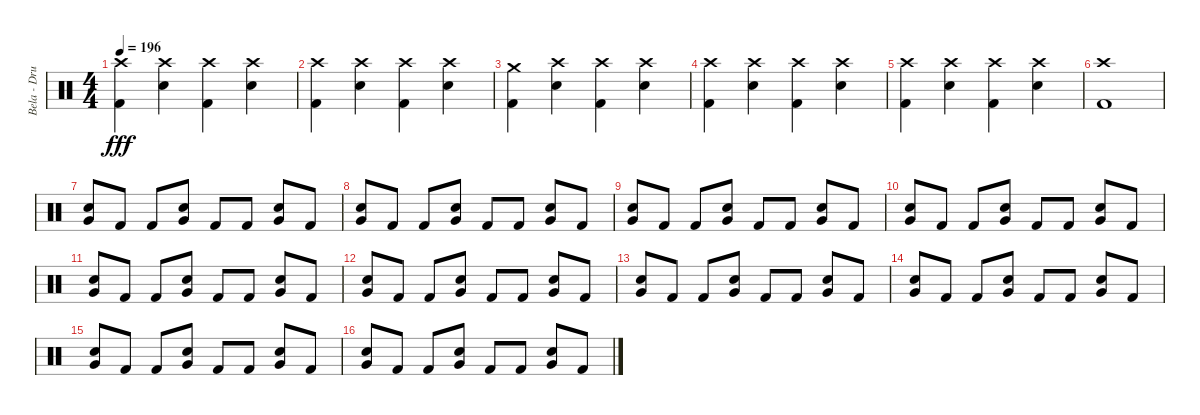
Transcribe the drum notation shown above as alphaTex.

\track ("Bela - Drums" "Bela - Dru") {instrument percussion}
\staff {score}
\articulation defaults
\ts (4 4)
\tempo 196
\clef neutral
\ks c
("Crash high (hit)" "Kick (hit) 2").4{dy fff} ("Crash high (hit)" "Electric Snare (hit)").4 ("Crash high (hit)" "Kick (hit) 2").4 ("Crash high (hit)" "Electric Snare (hit)").4 |
("Crash high (hit)" "Kick (hit) 2").4 ("Crash high (hit)" "Electric Snare (hit)").4 ("Crash high (hit)" "Kick (hit) 2").4 ("Crash high (hit)" "Electric Snare (hit)").4 |
("Crash medium (hit)" "Kick (hit) 2").4 ("Crash high (hit)" "Electric Snare (hit)").4 ("Crash high (hit)" "Kick (hit) 2").4 ("Crash high (hit)" "Electric Snare (hit)").4 |
("Crash high (hit)" "Kick (hit) 2").4 ("Crash high (hit)" "Electric Snare (hit)").4 ("Crash high (hit)" "Kick (hit) 2").4 ("Crash high (hit)" "Electric Snare (hit)").4 |
("Crash high (hit)" "Kick (hit) 2").4 ("Crash high (hit)" "Electric Snare (hit)").4 ("Crash high (hit)" "Kick (hit) 2").4 ("Crash high (hit)" "Electric Snare (hit)").4 |
("Crash high (hit)" "Kick (hit) 2").1 |
("Electric Snare (hit)" "Very Low Tom (hit)").8 "Kick (hit) 2".8 "Kick (hit) 2".8 ("Electric Snare (hit)" "Very Low Tom (hit)").8 "Kick (hit) 2".8 "Kick (hit) 2".8 ("Electric Snare (hit)" "Very Low Tom (hit)").8 "Kick (hit) 2".8 |
("Electric Snare (hit)" "Very Low Tom (hit)").8 "Kick (hit) 2".8 "Kick (hit) 2".8 ("Electric Snare (hit)" "Very Low Tom (hit)").8 "Kick (hit) 2".8 "Kick (hit) 2".8 ("Electric Snare (hit)" "Very Low Tom (hit)").8 "Kick (hit) 2".8 |
("Electric Snare (hit)" "Very Low Tom (hit)").8 "Kick (hit) 2".8 "Kick (hit) 2".8 ("Electric Snare (hit)" "Very Low Tom (hit)").8 "Kick (hit) 2".8 "Kick (hit) 2".8 ("Electric Snare (hit)" "Very Low Tom (hit)").8 "Kick (hit) 2".8 |
("Electric Snare (hit)" "Very Low Tom (hit)").8 "Kick (hit) 2".8 "Kick (hit) 2".8 ("Electric Snare (hit)" "Very Low Tom (hit)").8 "Kick (hit) 2".8 "Kick (hit) 2".8 ("Electric Snare (hit)" "Very Low Tom (hit)").8 "Kick (hit) 2".8 |
("Electric Snare (hit)" "Very Low Tom (hit)").8 "Kick (hit) 2".8 "Kick (hit) 2".8 ("Electric Snare (hit)" "Very Low Tom (hit)").8 "Kick (hit) 2".8 "Kick (hit) 2".8 ("Electric Snare (hit)" "Very Low Tom (hit)").8 "Kick (hit) 2".8 |
("Electric Snare (hit)" "Very Low Tom (hit)").8 "Kick (hit) 2".8 "Kick (hit) 2".8 ("Electric Snare (hit)" "Very Low Tom (hit)").8 "Kick (hit) 2".8 "Kick (hit) 2".8 ("Electric Snare (hit)" "Very Low Tom (hit)").8 "Kick (hit) 2".8 |
("Electric Snare (hit)" "Very Low Tom (hit)").8 "Kick (hit) 2".8 "Kick (hit) 2".8 ("Electric Snare (hit)" "Very Low Tom (hit)").8 "Kick (hit) 2".8 "Kick (hit) 2".8 ("Electric Snare (hit)" "Very Low Tom (hit)").8 "Kick (hit) 2".8 |
("Electric Snare (hit)" "Very Low Tom (hit)").8 "Kick (hit) 2".8 "Kick (hit) 2".8 ("Electric Snare (hit)" "Very Low Tom (hit)").8 "Kick (hit) 2".8 "Kick (hit) 2".8 ("Electric Snare (hit)" "Very Low Tom (hit)").8 "Kick (hit) 2".8 |
("Electric Snare (hit)" "Very Low Tom (hit)").8 "Kick (hit) 2".8 "Kick (hit) 2".8 ("Electric Snare (hit)" "Very Low Tom (hit)").8 "Kick (hit) 2".8 "Kick (hit) 2".8 ("Electric Snare (hit)" "Very Low Tom (hit)").8 "Kick (hit) 2".8 |
("Electric Snare (hit)" "Very Low Tom (hit)").8 "Kick (hit) 2".8 "Kick (hit) 2".8 ("Electric Snare (hit)" "Very Low Tom (hit)").8 "Kick (hit) 2".8 "Kick (hit) 2".8 ("Electric Snare (hit)" "Very Low Tom (hit)").8 "Kick (hit) 2".8
